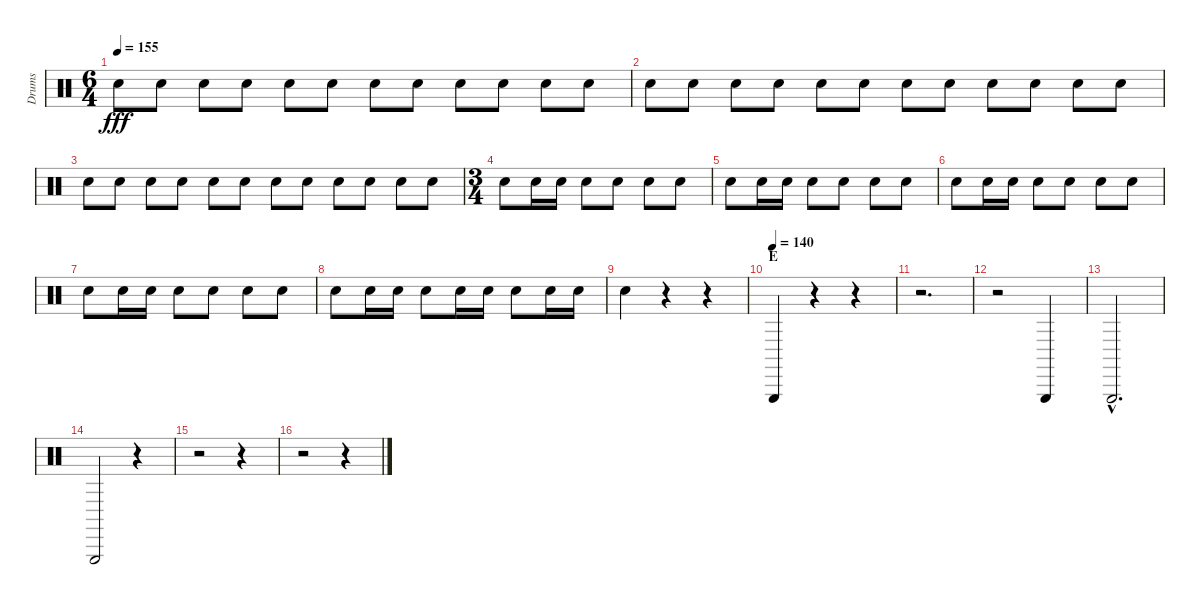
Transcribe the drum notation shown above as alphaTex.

\track ("Drums" "Drums") {instrument percussion}
\staff {score}
\articulation defaults
\ts (6 4)
\tempo 155
\clef neutral
\ks c "Hand Clap (hit)".8{dy fff} "Hand Clap (hit)".8 "Hand Clap (hit)".8 "Hand Clap (hit)".8 "Hand Clap (hit)".8 "Hand Clap (hit)".8 "Hand Clap (hit)".8 "Hand Clap (hit)".8 "Hand Clap (hit)".8 "Hand Clap (hit)".8 "Hand Clap (hit)".8 "Hand Clap (hit)".8
|
"Hand Clap (hit)".8 "Hand Clap (hit)".8 "Hand Clap (hit)".8 "Hand Clap (hit)".8 "Hand Clap (hit)".8 "Hand Clap (hit)".8 "Hand Clap (hit)".8 "Hand Clap (hit)".8 "Hand Clap (hit)".8 "Hand Clap (hit)".8 "Hand Clap (hit)".8 "Hand Clap (hit)".8 |
"Hand Clap (hit)".8 "Hand Clap (hit)".8 "Hand Clap (hit)".8 "Hand Clap (hit)".8 "Hand Clap (hit)".8 "Hand Clap (hit)".8 "Hand Clap (hit)".8 "Hand Clap (hit)".8 "Hand Clap (hit)".8 "Hand Clap (hit)".8 "Hand Clap (hit)".8 "Hand Clap (hit)".8 |
\ts (3 4)
"Hand Clap (hit)".8 "Hand Clap (hit)".16 "Hand Clap (hit)".16 "Hand Clap (hit)".8 "Hand Clap (hit)".8 "Hand Clap (hit)".8 "Hand Clap (hit)".8 |
"Hand Clap (hit)".8 "Hand Clap (hit)".16 "Hand Clap (hit)".16 "Hand Clap (hit)".8 "Hand Clap (hit)".8 "Hand Clap (hit)".8 "Hand Clap (hit)".8 |
"Hand Clap (hit)".8 "Hand Clap (hit)".16 "Hand Clap (hit)".16 "Hand Clap (hit)".8 "Hand Clap (hit)".8 "Hand Clap (hit)".8 "Hand Clap (hit)".8 |
"Hand Clap (hit)".8 "Hand Clap (hit)".16 "Hand Clap (hit)".16 "Hand Clap (hit)".8 "Hand Clap (hit)".8 "Hand Clap (hit)".8 "Hand Clap (hit)".8 |
"Hand Clap (hit)".8 "Hand Clap (hit)".16 "Hand Clap (hit)".16 "Hand Clap (hit)".8 "Hand Clap (hit)".16 "Hand Clap (hit)".16 "Hand Clap (hit)".8 "Hand Clap (hit)".16 "Hand Clap (hit)".16 |
"Hand Clap (hit)".4 r.4 r.4 |
\section ("" "E")
\tempo (140)
"Triangle (hit)".4 r.4 r.4 |
r.2{d} |
r.2 "Triangle (hit)".4 |
"Triangle (hit)"{hac}.2{d} |
"Triangle (hit)".2 r.4 |
r.2 r.4 |
r.2 r.4
